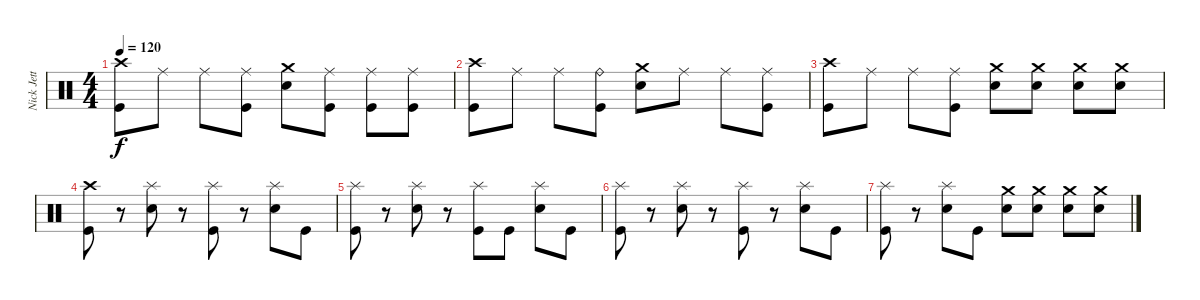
\track ("Nick Jett" "Nick Jett") {instrument percussion}
\staff {score}
\articulation defaults
\ts (4 4)
\tempo 120
\clef neutral
\ks c
("Crash high (hit)" "Kick (hit)").8{dy f} "Ride (middle)".8 "Ride (middle)".8 ("Ride (middle)" "Kick (hit)").8 ("Crash medium (hit)" "Electric Snare (hit)").8 ("Ride (middle)" "Kick (hit)").8 ("Ride (middle)" "Kick (hit)").8 ("Ride (middle)" "Kick (hit)").8 |
("Crash high (hit)" "Kick (hit)").8 "Ride (middle)".8 "Ride (middle)".8 ("Ride (bell)" "Kick (hit)").8 ("Crash medium (hit)" "Electric Snare (hit)").8 "Ride (middle)".8 "Ride (middle)".8 ("Ride (middle)" "Kick (hit)").8 |
("Crash high (hit)" "Kick (hit)").8 "Ride (middle)".8 "Ride (middle)".8 ("Ride (middle)" "Kick (hit)").8 ("Crash medium (hit)" "Electric Snare (hit)").8 ("Crash medium (hit)" "Electric Snare (hit)").8 ("Crash medium (hit)" "Electric Snare (hit)").8 ("Crash medium (hit)" "Electric Snare (hit)").8 |
("Crash high (hit)" "Kick (hit)").8 r.8 ("Splash (hit)" "Electric Snare (hit)").8 r.8 ("Splash (hit)" "Kick (hit)").8 r.8 ("Splash (hit)" "Electric Snare (hit)").8 "Kick (hit)".8 |
("Splash (hit)" "Kick (hit)").8 r.8 ("Splash (hit)" "Electric Snare (hit)").8 r.8 ("Splash (hit)" "Kick (hit)").8 "Kick (hit)".8 ("Splash (hit)" "Electric Snare (hit)").8 "Kick (hit)".8 |
("Splash (hit)" "Kick (hit)").8 r.8 ("Splash (hit)" "Electric Snare (hit)").8 r.8 ("Splash (hit)" "Kick (hit)").8 r.8 ("Splash (hit)" "Electric Snare (hit)").8 "Kick (hit)".8 |
("Splash (hit)" "Kick (hit)").8 r.8 ("Splash (hit)" "Electric Snare (hit)").8 "Kick (hit)".8 ("Crash medium (hit)" "Electric Snare (hit)").8 ("Crash medium (hit)" "Electric Snare (hit)").8 ("Crash medium (hit)" "Electric Snare (hit)").8 ("Crash medium (hit)" "Electric Snare (hit)").8
